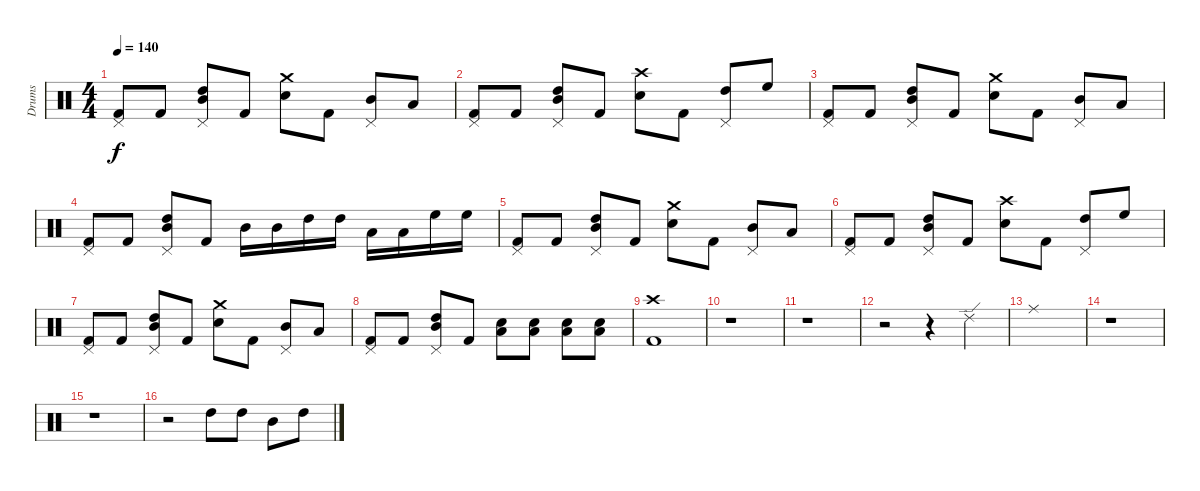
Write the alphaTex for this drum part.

\track ("Drums" "Drums") {instrument percussion}
\staff {score}
\articulation defaults
\ts (4 4)
\tempo 140
\clef neutral
\ks c
("Kick (hit) 2" "Pedal Hi-Hat (hit)").8{dy f} "Kick (hit) 2".8 ("Mid Tom (hit)" "High Tom (hit)" "Pedal Hi-Hat (hit)").8 "Kick (hit) 2".8 ("Electric Snare (hit)" "Crash medium (hit)").8 "Kick (hit) 2".8 ("Mid Tom (hit)" "Pedal Hi-Hat (hit)").8 "Low Tom (hit)".8 |
("Kick (hit) 2" "Pedal Hi-Hat (hit)").8 "Kick (hit) 2".8 ("Mid Tom (hit)" "High Tom (hit)" "Pedal Hi-Hat (hit)").8 "Kick (hit) 2".8 ("Electric Snare (hit)" "Crash high (hit)").8 "Kick (hit) 2".8 ("High Tom (hit)" "Pedal Hi-Hat (hit)").8 "High Floor Tom (hit)".8 |
("Kick (hit) 2" "Pedal Hi-Hat (hit)").8 "Kick (hit) 2".8 ("Mid Tom (hit)" "High Tom (hit)" "Pedal Hi-Hat (hit)").8 "Kick (hit) 2".8 ("Electric Snare (hit)" "Crash medium (hit)").8 "Kick (hit) 2".8 ("Mid Tom (hit)" "Pedal Hi-Hat (hit)").8 "Low Tom (hit)".8 |
("Kick (hit) 2" "Pedal Hi-Hat (hit)").8 "Kick (hit) 2".8 ("Mid Tom (hit)" "High Tom (hit)" "Pedal Hi-Hat (hit)").8 "Kick (hit) 2".8 "Mid Tom (hit)".16 "Mid Tom (hit)".16 "High Tom (hit)".16 "High Tom (hit)".16 "Low Tom (hit)".16 "Low Tom (hit)".16 "High Floor Tom (hit)".16 "High Floor Tom (hit)".16 |
("Kick (hit) 2" "Pedal Hi-Hat (hit)").8 "Kick (hit) 2".8 ("Mid Tom (hit)" "High Tom (hit)" "Pedal Hi-Hat (hit)").8 "Kick (hit) 2".8 ("Electric Snare (hit)" "Crash medium (hit)").8 "Kick (hit) 2".8 ("Mid Tom (hit)" "Pedal Hi-Hat (hit)").8 "Low Tom (hit)".8 |
("Kick (hit) 2" "Pedal Hi-Hat (hit)").8 "Kick (hit) 2".8 ("Mid Tom (hit)" "High Tom (hit)" "Pedal Hi-Hat (hit)").8 "Kick (hit) 2".8 ("Electric Snare (hit)" "Crash high (hit)").8 "Kick (hit) 2".8 ("High Tom (hit)" "Pedal Hi-Hat (hit)").8 "High Floor Tom (hit)".8 |
("Kick (hit) 2" "Pedal Hi-Hat (hit)").8 "Kick (hit) 2".8 ("Mid Tom (hit)" "High Tom (hit)" "Pedal Hi-Hat (hit)").8 "Kick (hit) 2".8 ("Electric Snare (hit)" "Crash medium (hit)").8 "Kick (hit) 2".8 ("Mid Tom (hit)" "Pedal Hi-Hat (hit)").8 "Low Tom (hit)".8 |
("Kick (hit) 2" "Pedal Hi-Hat (hit)").8 "Kick (hit) 2".8 ("Mid Tom (hit)" "High Tom (hit)" "Pedal Hi-Hat (hit)").8 "Kick (hit) 2".8 ("Low Floor Tom (hit)" "Electric Snare (hit)").8 ("Low Floor Tom (hit)" "Electric Snare (hit)").8 ("Low Floor Tom (hit)" "Electric Snare (hit)").8 ("Low Floor Tom (hit)" "Electric Snare (hit)").8 |
("Kick (hit) 2" "Crash high (hit)").1 |
r.1 |
r.1 |
r.2 r.4 "Ride (edge) 2".4 |
"Ride (middle)".1 |
r.1 |
r.1 |
r.2 "High Tom (hit)".8 "High Tom (hit)".8 "Mid Tom (hit)".8 "High Tom (hit)".8
